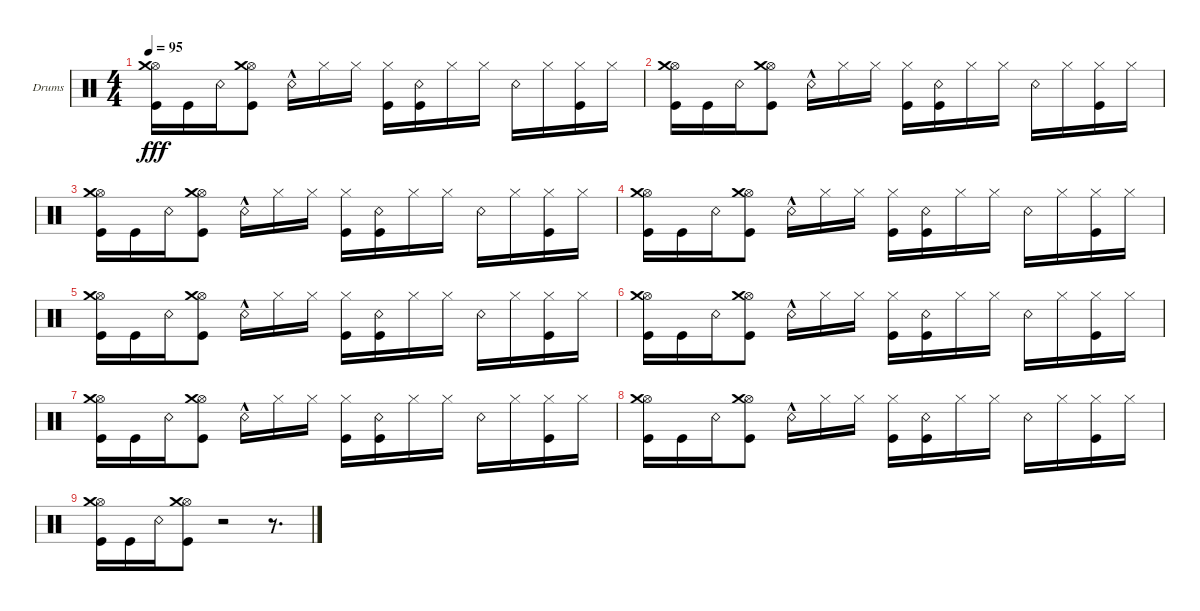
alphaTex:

\bracketExtendMode groupsimilarinstruments
\firstSystemTrackNameOrientation horizontal
\otherSystemsTrackNameOrientation horizontal
\track ("Drumkit" "Drums") {solo instrument percussion}
\staff {score}
\articulation defaults
\ts (4 4)
\tempo 95
\clef neutral
\scale
0.333333
\ks c
("Kick (hit)" "Hi-Hat (open)" "Crash medium (hit)").16{dy fff} "Kick (hit)".16 "Snare (rim shot)".16 ("Kick (hit)" "Hi-Hat (open)" "Crash medium (hit)").8 "Snare (rim shot)"{hac}.16 "Hi-Hat (closed)".16 "Hi-Hat (closed)".16 ("Hi-Hat (closed)" "Kick (hit)").16 ("Kick (hit)" "Snare (rim shot)").16 "Hi-Hat (closed)".16 "Hi-Hat (closed)".16 "Snare (rim shot)".16 "Hi-Hat (closed)".16 ("Hi-Hat (closed)" "Kick (hit)").16 "Hi-Hat (closed)".16 |
\scale
0.333333 ("Kick (hit)" "Hi-Hat (open)" "Crash medium (hit)").16 "Kick (hit)".16 "Snare (rim shot)".16 ("Kick (hit)" "Hi-Hat (open)" "Crash medium (hit)").8 "Snare (rim shot)"{hac}.16 "Hi-Hat (closed)".16 "Hi-Hat (closed)".16 ("Hi-Hat (closed)" "Kick (hit)").16 ("Kick (hit)" "Snare (rim shot)").16 "Hi-Hat (closed)".16 "Hi-Hat (closed)".16 "Snare (rim shot)".16 "Hi-Hat (closed)".16 ("Hi-Hat (closed)" "Kick (hit)").16 "Hi-Hat (closed)".16 |
\scale
0.333333 ("Kick (hit)" "Hi-Hat (open)" "Crash medium (hit)").16 "Kick (hit)".16 "Snare (rim shot)".16 ("Kick (hit)" "Hi-Hat (open)" "Crash medium (hit)").8 "Snare (rim shot)"{hac}.16 "Hi-Hat (closed)".16 "Hi-Hat (closed)".16 ("Hi-Hat (closed)" "Kick (hit)").16 ("Kick (hit)" "Snare (rim shot)").16 "Hi-Hat (closed)".16 "Hi-Hat (closed)".16 "Snare (rim shot)".16 "Hi-Hat (closed)".16 ("Hi-Hat (closed)" "Kick (hit)").16 "Hi-Hat (closed)".16 |
\scale
0.333333 ("Kick (hit)" "Hi-Hat (open)" "Crash medium (hit)").16 "Kick (hit)".16 "Snare (rim shot)".16 ("Kick (hit)" "Hi-Hat (open)" "Crash medium (hit)").8 "Snare (rim shot)"{hac}.16 "Hi-Hat (closed)".16 "Hi-Hat (closed)".16 ("Hi-Hat (closed)" "Kick (hit)").16 ("Kick (hit)" "Snare (rim shot)").16 "Hi-Hat (closed)".16 "Hi-Hat (closed)".16 "Snare (rim shot)".16 "Hi-Hat (closed)".16 ("Hi-Hat (closed)" "Kick (hit)").16 "Hi-Hat (closed)".16 |
\scale
0.333333 ("Kick (hit)" "Hi-Hat (open)" "Crash medium (hit)").16 "Kick (hit)".16 "Snare (rim shot)".16 ("Kick (hit)" "Hi-Hat (open)" "Crash medium (hit)").8 "Snare (rim shot)"{hac}.16 "Hi-Hat (closed)".16 "Hi-Hat (closed)".16 ("Hi-Hat (closed)" "Kick (hit)").16 ("Kick (hit)" "Snare (rim shot)").16 "Hi-Hat (closed)".16 "Hi-Hat (closed)".16 "Snare (rim shot)".16 "Hi-Hat (closed)".16 ("Hi-Hat (closed)" "Kick (hit)").16 "Hi-Hat (closed)".16 |
\scale
0.333333 ("Kick (hit)" "Hi-Hat (open)" "Crash medium (hit)").16 "Kick (hit)".16 "Snare (rim shot)".16 ("Kick (hit)" "Hi-Hat (open)" "Crash medium (hit)").8 "Snare (rim shot)"{hac}.16 "Hi-Hat (closed)".16 "Hi-Hat (closed)".16 ("Hi-Hat (closed)" "Kick (hit)").16 ("Kick (hit)" "Snare (rim shot)").16 "Hi-Hat (closed)".16 "Hi-Hat (closed)".16 "Snare (rim shot)".16 "Hi-Hat (closed)".16 ("Hi-Hat (closed)" "Kick (hit)").16 "Hi-Hat (closed)".16 |
\scale
0.333333 ("Kick (hit)" "Hi-Hat (open)" "Crash medium (hit)").16 "Kick (hit)".16 "Snare (rim shot)".16 ("Kick (hit)" "Hi-Hat (open)" "Crash medium (hit)").8 "Snare (rim shot)"{hac}.16 "Hi-Hat (closed)".16 "Hi-Hat (closed)".16 ("Hi-Hat (closed)" "Kick (hit)").16 ("Kick (hit)" "Snare (rim shot)").16 "Hi-Hat (closed)".16 "Hi-Hat (closed)".16 "Snare (rim shot)".16 "Hi-Hat (closed)".16 ("Hi-Hat (closed)" "Kick (hit)").16 "Hi-Hat (closed)".16 |
\scale
0.333333 ("Kick (hit)" "Hi-Hat (open)" "Crash medium (hit)").16 "Kick (hit)".16 "Snare (rim shot)".16 ("Kick (hit)" "Hi-Hat (open)" "Crash medium (hit)").8 "Snare (rim shot)"{hac}.16 "Hi-Hat (closed)".16 "Hi-Hat (closed)".16 ("Hi-Hat (closed)" "Kick (hit)").16 ("Kick (hit)" "Snare (rim shot)").16 "Hi-Hat (closed)".16 "Hi-Hat (closed)".16 "Snare (rim shot)".16 "Hi-Hat (closed)".16 ("Hi-Hat (closed)" "Kick (hit)").16 "Hi-Hat (closed)".16 |
("Kick (hit)" "Hi-Hat (open)" "Crash medium (hit)").16 "Kick (hit)".16 "Snare (rim shot)".16 ("Kick (hit)" "Hi-Hat (open)" "Crash medium (hit)").8 r.2 r.8{d}
